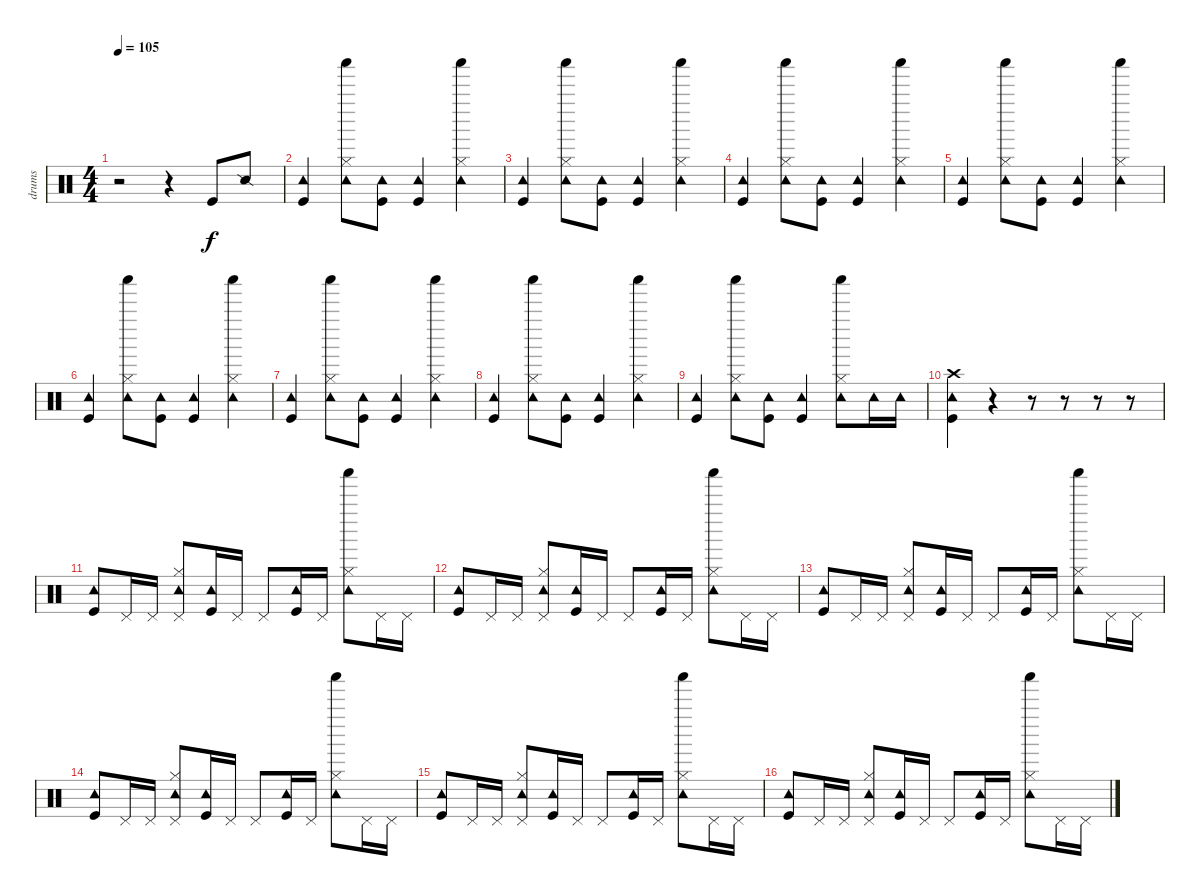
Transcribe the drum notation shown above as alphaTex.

\track ("drums" "drums") {instrument percussion}
\staff {score}
\articulation defaults
\ts (4 4)
\tempo 105
\clef neutral
\ks c
r.2{dy f} r.4 "Kick (hit)".8 "Snare (side stick) 2".8 |
("Kick (hit)" "Tambourine (hit)").4 ("Tambourine (hit)" "Shaker (hit)" "Hi-Hat (closed)").8 ("Kick (hit)" "Tambourine (hit)").8 ("Kick (hit)" "Tambourine (hit)").4 ("Tambourine (hit)" "Shaker (hit)" "Hi-Hat (closed)").4 |
("Kick (hit)" "Tambourine (hit)").4 ("Tambourine (hit)" "Shaker (hit)" "Hi-Hat (closed)").8 ("Kick (hit)" "Tambourine (hit)").8 ("Kick (hit)" "Tambourine (hit)").4 ("Tambourine (hit)" "Shaker (hit)" "Hi-Hat (closed)").4 |
("Kick (hit)" "Tambourine (hit)").4 ("Tambourine (hit)" "Shaker (hit)" "Hi-Hat (closed)").8 ("Kick (hit)" "Tambourine (hit)").8 ("Kick (hit)" "Tambourine (hit)").4 ("Tambourine (hit)" "Shaker (hit)" "Hi-Hat (closed)").4 |
("Kick (hit)" "Tambourine (hit)").4 ("Tambourine (hit)" "Shaker (hit)" "Hi-Hat (closed)").8 ("Kick (hit)" "Tambourine (hit)").8 ("Kick (hit)" "Tambourine (hit)").4 ("Tambourine (hit)" "Shaker (hit)" "Hi-Hat (closed)").4 |
("Kick (hit)" "Tambourine (hit)").4 ("Tambourine (hit)" "Shaker (hit)" "Hi-Hat (closed)").8 ("Kick (hit)" "Tambourine (hit)").8 ("Kick (hit)" "Tambourine (hit)").4 ("Tambourine (hit)" "Shaker (hit)" "Hi-Hat (closed)").4 |
("Kick (hit)" "Tambourine (hit)").4 ("Tambourine (hit)" "Shaker (hit)" "Hi-Hat (closed)").8 ("Kick (hit)" "Tambourine (hit)").8 ("Kick (hit)" "Tambourine (hit)").4 ("Tambourine (hit)" "Shaker (hit)" "Hi-Hat (closed)").4 |
("Kick (hit)" "Tambourine (hit)").4 ("Tambourine (hit)" "Shaker (hit)" "Hi-Hat (closed)").8 ("Kick (hit)" "Tambourine (hit)").8 ("Kick (hit)" "Tambourine (hit)").4 ("Tambourine (hit)" "Shaker (hit)" "Hi-Hat (closed)").4 |
("Kick (hit)" "Tambourine (hit)").4 ("Tambourine (hit)" "Shaker (hit)" "Hi-Hat (closed)").8 ("Kick (hit)" "Tambourine (hit)").8 ("Kick (hit)" "Tambourine (hit)").4 ("Tambourine (hit)" "Shaker (hit)" "Hi-Hat (closed)").8 "Tambourine (hit)".16 "Tambourine (hit)".16 |
("Crash high (hit)" "Kick (hit)" "Tambourine (hit)").4 r.4 r.8 r.8 r.8 r.8 |
("Kick (hit)" "Tambourine (hit)").8 "Pedal Hi-Hat (hit)".16 "Pedal Hi-Hat (hit)".16 ("Tambourine (hit)" "Pedal Hi-Hat (hit)" "Hi-Hat (closed)").8 ("Kick (hit)" "Tambourine (hit)").16 "Pedal Hi-Hat (hit)".16 "Pedal Hi-Hat (hit)".8 ("Kick (hit)" "Tambourine (hit)").16 "Pedal Hi-Hat (hit)".16 ("Tambourine (hit)" "Shaker (hit)" "Hi-Hat (closed)").8 "Pedal Hi-Hat (hit)".16 "Pedal Hi-Hat (hit)".16 |
("Kick (hit)" "Tambourine (hit)").8 "Pedal Hi-Hat (hit)".16 "Pedal Hi-Hat (hit)".16 ("Tambourine (hit)" "Pedal Hi-Hat (hit)" "Hi-Hat (closed)").8 ("Kick (hit)" "Tambourine (hit)").16 "Pedal Hi-Hat (hit)".16 "Pedal Hi-Hat (hit)".8 ("Kick (hit)" "Tambourine (hit)").16 "Pedal Hi-Hat (hit)".16 ("Tambourine (hit)" "Shaker (hit)" "Hi-Hat (closed)").8 "Pedal Hi-Hat (hit)".16 "Pedal Hi-Hat (hit)".16 |
("Kick (hit)" "Tambourine (hit)").8 "Pedal Hi-Hat (hit)".16 "Pedal Hi-Hat (hit)".16 ("Tambourine (hit)" "Pedal Hi-Hat (hit)" "Hi-Hat (closed)").8 ("Kick (hit)" "Tambourine (hit)").16 "Pedal Hi-Hat (hit)".16 "Pedal Hi-Hat (hit)".8 ("Kick (hit)" "Tambourine (hit)").16 "Pedal Hi-Hat (hit)".16 ("Tambourine (hit)" "Shaker (hit)" "Hi-Hat (closed)").8 "Pedal Hi-Hat (hit)".16 "Pedal Hi-Hat (hit)".16 |
("Kick (hit)" "Tambourine (hit)").8 "Pedal Hi-Hat (hit)".16 "Pedal Hi-Hat (hit)".16 ("Tambourine (hit)" "Pedal Hi-Hat (hit)" "Hi-Hat (closed)").8 ("Kick (hit)" "Tambourine (hit)").16 "Pedal Hi-Hat (hit)".16 "Pedal Hi-Hat (hit)".8 ("Kick (hit)" "Tambourine (hit)").16 "Pedal Hi-Hat (hit)".16 ("Tambourine (hit)" "Shaker (hit)" "Hi-Hat (closed)").8 "Pedal Hi-Hat (hit)".16 "Pedal Hi-Hat (hit)".16 |
("Kick (hit)" "Tambourine (hit)").8 "Pedal Hi-Hat (hit)".16 "Pedal Hi-Hat (hit)".16 ("Tambourine (hit)" "Pedal Hi-Hat (hit)" "Hi-Hat (closed)").8 ("Kick (hit)" "Tambourine (hit)").16 "Pedal Hi-Hat (hit)".16 "Pedal Hi-Hat (hit)".8 ("Kick (hit)" "Tambourine (hit)").16 "Pedal Hi-Hat (hit)".16 ("Tambourine (hit)" "Shaker (hit)" "Hi-Hat (closed)").8 "Pedal Hi-Hat (hit)".16 "Pedal Hi-Hat (hit)".16 |
("Kick (hit)" "Tambourine (hit)").8 "Pedal Hi-Hat (hit)".16 "Pedal Hi-Hat (hit)".16 ("Tambourine (hit)" "Pedal Hi-Hat (hit)" "Hi-Hat (closed)").8 ("Kick (hit)" "Tambourine (hit)").16 "Pedal Hi-Hat (hit)".16 "Pedal Hi-Hat (hit)".8 ("Kick (hit)" "Tambourine (hit)").16 "Pedal Hi-Hat (hit)".16 ("Tambourine (hit)" "Shaker (hit)" "Hi-Hat (closed)").8 "Pedal Hi-Hat (hit)".16 "Pedal Hi-Hat (hit)".16
